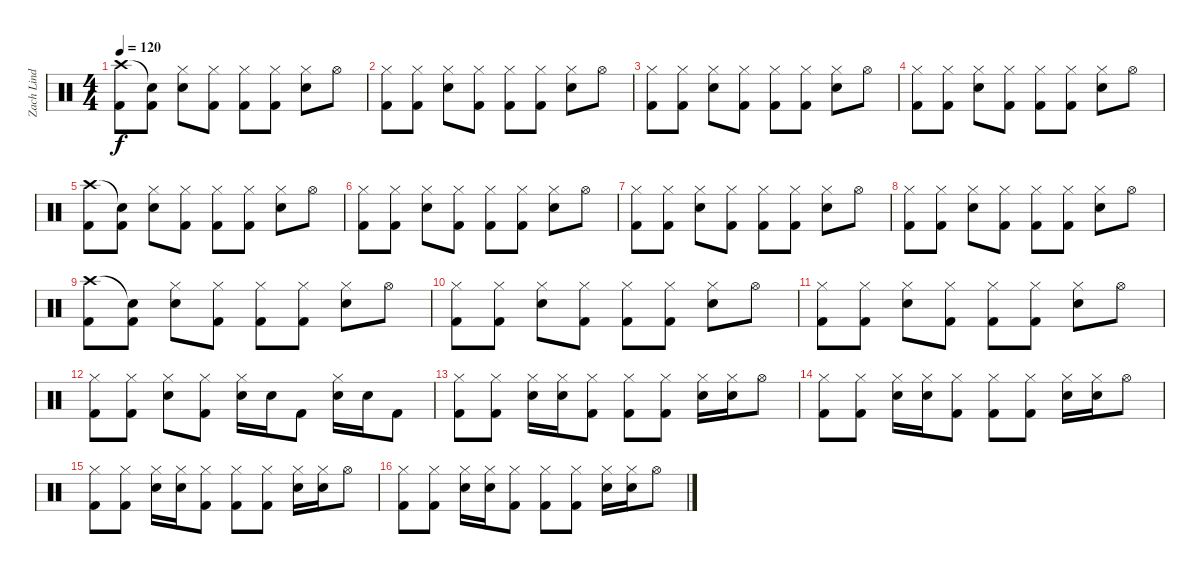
\track ("Zach Lind (Drums)" "Zach Lind ") {instrument percussion}
\staff {score}
\articulation defaults
\ts (4 4)
\tempo 120
\clef neutral
\ks c
("Crash high (hit)" "Kick (hit) 2").8{dy f} ("Snare (hit)"{t} "Kick (hit) 2").8 ("Hi-Hat (closed)" "Electric Snare (hit)").8 ("Hi-Hat (closed)" "Kick (hit) 2").8 ("Hi-Hat (closed)" "Kick (hit) 2").8 ("Hi-Hat (closed)" "Kick (hit) 2").8 ("Hi-Hat (closed)" "Electric Snare (hit)").8 "Hi-Hat (open)".8 |
("Hi-Hat (closed)" "Kick (hit) 2").8 ("Hi-Hat (closed)" "Kick (hit) 2").8 ("Hi-Hat (closed)" "Electric Snare (hit)").8 ("Hi-Hat (closed)" "Kick (hit) 2").8 ("Hi-Hat (closed)" "Kick (hit) 2").8 ("Hi-Hat (closed)" "Kick (hit) 2").8 ("Hi-Hat (closed)" "Electric Snare (hit)").8 "Hi-Hat (open)".8 |
("Hi-Hat (closed)" "Kick (hit) 2").8 ("Hi-Hat (closed)" "Kick (hit) 2").8 ("Hi-Hat (closed)" "Electric Snare (hit)").8 ("Hi-Hat (closed)" "Kick (hit) 2").8 ("Hi-Hat (closed)" "Kick (hit) 2").8 ("Hi-Hat (closed)" "Kick (hit) 2").8 ("Hi-Hat (closed)" "Electric Snare (hit)").8 "Hi-Hat (open)".8 |
("Hi-Hat (closed)" "Kick (hit) 2").8 ("Hi-Hat (closed)" "Kick (hit) 2").8 ("Hi-Hat (closed)" "Electric Snare (hit)").8 ("Hi-Hat (closed)" "Kick (hit) 2").8 ("Hi-Hat (closed)" "Kick (hit) 2").8 ("Hi-Hat (closed)" "Kick (hit) 2").8 ("Hi-Hat (closed)" "Electric Snare (hit)").8 "Hi-Hat (open)".8 |
("Crash high (hit)" "Kick (hit) 2").8 ("Snare (hit)"{t} "Kick (hit) 2").8 ("Hi-Hat (closed)" "Electric Snare (hit)").8 ("Hi-Hat (closed)" "Kick (hit) 2").8 ("Hi-Hat (closed)" "Kick (hit) 2").8 ("Hi-Hat (closed)" "Kick (hit) 2").8 ("Hi-Hat (closed)" "Electric Snare (hit)").8 "Hi-Hat (open)".8 |
("Hi-Hat (closed)" "Kick (hit) 2").8 ("Hi-Hat (closed)" "Kick (hit) 2").8 ("Hi-Hat (closed)" "Electric Snare (hit)").8 ("Hi-Hat (closed)" "Kick (hit) 2").8 ("Hi-Hat (closed)" "Kick (hit) 2").8 ("Hi-Hat (closed)" "Kick (hit) 2").8 ("Hi-Hat (closed)" "Electric Snare (hit)").8 "Hi-Hat (open)".8 |
("Hi-Hat (closed)" "Kick (hit) 2").8 ("Hi-Hat (closed)" "Kick (hit) 2").8 ("Hi-Hat (closed)" "Electric Snare (hit)").8 ("Hi-Hat (closed)" "Kick (hit) 2").8 ("Hi-Hat (closed)" "Kick (hit) 2").8 ("Hi-Hat (closed)" "Kick (hit) 2").8 ("Hi-Hat (closed)" "Electric Snare (hit)").8 "Hi-Hat (open)".8 |
("Hi-Hat (closed)" "Kick (hit) 2").8 ("Hi-Hat (closed)" "Kick (hit) 2").8 ("Hi-Hat (closed)" "Electric Snare (hit)").8 ("Hi-Hat (closed)" "Kick (hit) 2").8 ("Hi-Hat (closed)" "Kick (hit) 2").8 ("Hi-Hat (closed)" "Kick (hit) 2").8 ("Hi-Hat (closed)" "Electric Snare (hit)").8 "Hi-Hat (open)".8 |
("Crash high (hit)" "Kick (hit) 2").8 ("Snare (hit)"{t} "Kick (hit) 2").8 ("Hi-Hat (closed)" "Electric Snare (hit)").8 ("Hi-Hat (closed)" "Kick (hit) 2").8 ("Hi-Hat (closed)" "Kick (hit) 2").8 ("Hi-Hat (closed)" "Kick (hit) 2").8 ("Hi-Hat (closed)" "Electric Snare (hit)").8 "Hi-Hat (open)".8 |
("Hi-Hat (closed)" "Kick (hit) 2").8 ("Hi-Hat (closed)" "Kick (hit) 2").8 ("Hi-Hat (closed)" "Electric Snare (hit)").8 ("Hi-Hat (closed)" "Kick (hit) 2").8 ("Hi-Hat (closed)" "Kick (hit) 2").8 ("Hi-Hat (closed)" "Kick (hit) 2").8 ("Hi-Hat (closed)" "Electric Snare (hit)").8 "Hi-Hat (open)".8 |
("Hi-Hat (closed)" "Kick (hit) 2").8 ("Hi-Hat (closed)" "Kick (hit) 2").8 ("Hi-Hat (closed)" "Electric Snare (hit)").8 ("Hi-Hat (closed)" "Kick (hit) 2").8 ("Hi-Hat (closed)" "Kick (hit) 2").8 ("Hi-Hat (closed)" "Kick (hit) 2").8 ("Hi-Hat (closed)" "Electric Snare (hit)").8 "Hi-Hat (open)".8 |
("Hi-Hat (closed)" "Kick (hit) 2").8 ("Hi-Hat (closed)" "Kick (hit) 2").8 ("Hi-Hat (closed)" "Electric Snare (hit)").8 ("Hi-Hat (closed)" "Kick (hit) 2").8 ("Hi-Hat (closed)" "Electric Snare (hit)").16 "Electric Snare (hit)".16 "Kick (hit) 2".8 ("Hi-Hat (closed)" "Electric Snare (hit)").16 "Electric Snare (hit)".16 "Kick (hit) 2".8 |
("Hi-Hat (closed)" "Kick (hit) 2").8 ("Hi-Hat (closed)" "Kick (hit) 2").8 ("Hi-Hat (closed)" "Electric Snare (hit)").16 ("Hi-Hat (closed)" "Electric Snare (hit)").16 ("Hi-Hat (closed)" "Kick (hit) 2").8 ("Hi-Hat (closed)" "Kick (hit) 2").8 ("Hi-Hat (closed)" "Kick (hit) 2").8 ("Hi-Hat (closed)" "Electric Snare (hit)").16 ("Hi-Hat (closed)" "Electric Snare (hit)").16 "Hi-Hat (open)".8 |
("Hi-Hat (closed)" "Kick (hit) 2").8 ("Hi-Hat (closed)" "Kick (hit) 2").8 ("Hi-Hat (closed)" "Electric Snare (hit)").16 ("Hi-Hat (closed)" "Electric Snare (hit)").16 ("Hi-Hat (closed)" "Kick (hit) 2").8 ("Hi-Hat (closed)" "Kick (hit) 2").8 ("Hi-Hat (closed)" "Kick (hit) 2").8 ("Hi-Hat (closed)" "Electric Snare (hit)").16 ("Hi-Hat (closed)" "Electric Snare (hit)").16 "Hi-Hat (open)".8 |
("Hi-Hat (closed)" "Kick (hit) 2").8 ("Hi-Hat (closed)" "Kick (hit) 2").8 ("Hi-Hat (closed)" "Electric Snare (hit)").16 ("Hi-Hat (closed)" "Electric Snare (hit)").16 ("Hi-Hat (closed)" "Kick (hit) 2").8 ("Hi-Hat (closed)" "Kick (hit) 2").8 ("Hi-Hat (closed)" "Kick (hit) 2").8 ("Hi-Hat (closed)" "Electric Snare (hit)").16 ("Hi-Hat (closed)" "Electric Snare (hit)").16 "Hi-Hat (open)".8 |
("Hi-Hat (closed)" "Kick (hit) 2").8 ("Hi-Hat (closed)" "Kick (hit) 2").8 ("Hi-Hat (closed)" "Electric Snare (hit)").16 ("Hi-Hat (closed)" "Electric Snare (hit)").16 ("Hi-Hat (closed)" "Kick (hit) 2").8 ("Hi-Hat (closed)" "Kick (hit) 2").8 ("Hi-Hat (closed)" "Kick (hit) 2").8 ("Hi-Hat (closed)" "Electric Snare (hit)").16 ("Hi-Hat (closed)" "Electric Snare (hit)").16 "Hi-Hat (open)".8
